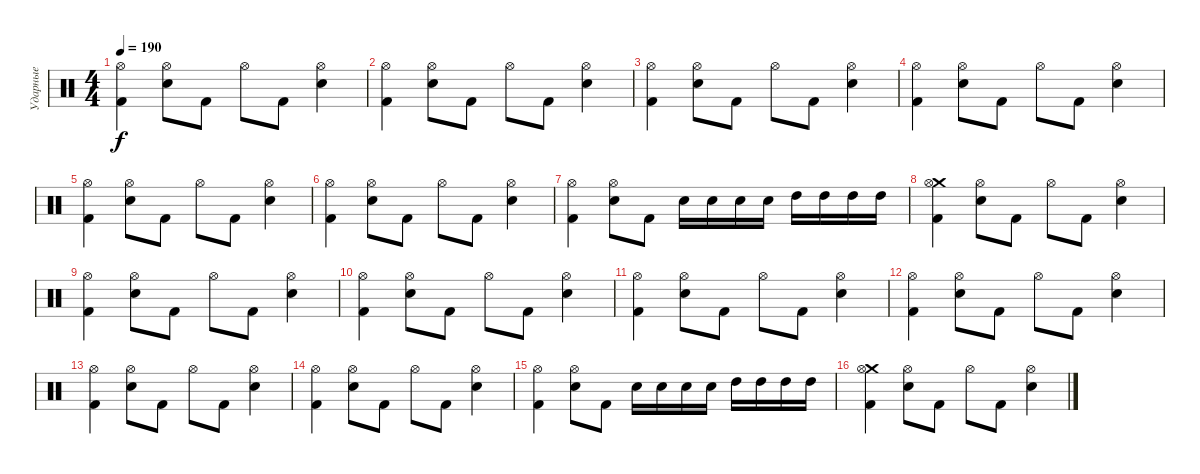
\track ("Ударные" "Ударные") {instrument percussion}
\staff {score}
\articulation defaults
\ts (4 4)
\tempo 190
\clef neutral
\ks c
("Kick (hit) 2" "Hi-Hat (open)").4{dy f} ("Electric Snare (hit)" "Hi-Hat (open)").8 "Kick (hit) 2".8 "Hi-Hat (open)".8 "Kick (hit) 2".8 ("Electric Snare (hit)" "Hi-Hat (open)").4 |
("Kick (hit) 2" "Hi-Hat (open)").4 ("Electric Snare (hit)" "Hi-Hat (open)").8 "Kick (hit) 2".8 "Hi-Hat (open)".8 "Kick (hit) 2".8 ("Electric Snare (hit)" "Hi-Hat (open)").4 |
("Kick (hit) 2" "Hi-Hat (open)").4 ("Electric Snare (hit)" "Hi-Hat (open)").8 "Kick (hit) 2".8 "Hi-Hat (open)".8 "Kick (hit) 2".8 ("Electric Snare (hit)" "Hi-Hat (open)").4 |
("Kick (hit) 2" "Hi-Hat (open)").4 ("Electric Snare (hit)" "Hi-Hat (open)").8 "Kick (hit) 2".8 "Hi-Hat (open)".8 "Kick (hit) 2".8 ("Electric Snare (hit)" "Hi-Hat (open)").4 |
("Kick (hit) 2" "Hi-Hat (open)").4 ("Electric Snare (hit)" "Hi-Hat (open)").8 "Kick (hit) 2".8 "Hi-Hat (open)".8 "Kick (hit) 2".8 ("Electric Snare (hit)" "Hi-Hat (open)").4 |
("Kick (hit) 2" "Hi-Hat (open)").4 ("Electric Snare (hit)" "Hi-Hat (open)").8 "Kick (hit) 2".8 "Hi-Hat (open)".8 "Kick (hit) 2".8 ("Electric Snare (hit)" "Hi-Hat (open)").4 |
("Kick (hit) 2" "Hi-Hat (open)").4 ("Electric Snare (hit)" "Hi-Hat (open)").8 "Kick (hit) 2".8 "Electric Snare (hit)".16 "Electric Snare (hit)".16 "Electric Snare (hit)".16 "Electric Snare (hit)".16 "High Tom (hit)".16 "High Tom (hit)".16 "High Tom (hit)".16 "High Tom (hit)".16 |
("Crash medium (hit)" "Kick (hit) 2" "Hi-Hat (open)").4 ("Electric Snare (hit)" "Hi-Hat (open)").8 "Kick (hit) 2".8 "Hi-Hat (open)".8 "Kick (hit) 2".8 ("Electric Snare (hit)" "Hi-Hat (open)").4 |
("Kick (hit) 2" "Hi-Hat (open)").4 ("Electric Snare (hit)" "Hi-Hat (open)").8 "Kick (hit) 2".8 "Hi-Hat (open)".8 "Kick (hit) 2".8 ("Electric Snare (hit)" "Hi-Hat (open)").4 |
("Kick (hit) 2" "Hi-Hat (open)").4 ("Electric Snare (hit)" "Hi-Hat (open)").8 "Kick (hit) 2".8 "Hi-Hat (open)".8 "Kick (hit) 2".8 ("Electric Snare (hit)" "Hi-Hat (open)").4 |
("Kick (hit) 2" "Hi-Hat (open)").4 ("Electric Snare (hit)" "Hi-Hat (open)").8 "Kick (hit) 2".8 "Hi-Hat (open)".8 "Kick (hit) 2".8 ("Electric Snare (hit)" "Hi-Hat (open)").4 |
("Kick (hit) 2" "Hi-Hat (open)").4 ("Electric Snare (hit)" "Hi-Hat (open)").8 "Kick (hit) 2".8 "Hi-Hat (open)".8 "Kick (hit) 2".8 ("Electric Snare (hit)" "Hi-Hat (open)").4 |
("Kick (hit) 2" "Hi-Hat (open)").4 ("Electric Snare (hit)" "Hi-Hat (open)").8 "Kick (hit) 2".8 "Hi-Hat (open)".8 "Kick (hit) 2".8 ("Electric Snare (hit)" "Hi-Hat (open)").4 |
("Kick (hit) 2" "Hi-Hat (open)").4 ("Electric Snare (hit)" "Hi-Hat (open)").8 "Kick (hit) 2".8 "Hi-Hat (open)".8 "Kick (hit) 2".8 ("Electric Snare (hit)" "Hi-Hat (open)").4 |
("Kick (hit) 2" "Hi-Hat (open)").4 ("Electric Snare (hit)" "Hi-Hat (open)").8 "Kick (hit) 2".8 "Electric Snare (hit)".16 "Electric Snare (hit)".16 "Electric Snare (hit)".16 "Electric Snare (hit)".16 "High Tom (hit)".16 "High Tom (hit)".16 "High Tom (hit)".16 "High Tom (hit)".16 |
("Crash medium (hit)" "Kick (hit) 2" "Hi-Hat (open)").4 ("Electric Snare (hit)" "Hi-Hat (open)").8 "Kick (hit) 2".8 "Hi-Hat (open)".8 "Kick (hit) 2".8 ("Electric Snare (hit)" "Hi-Hat (open)").4
